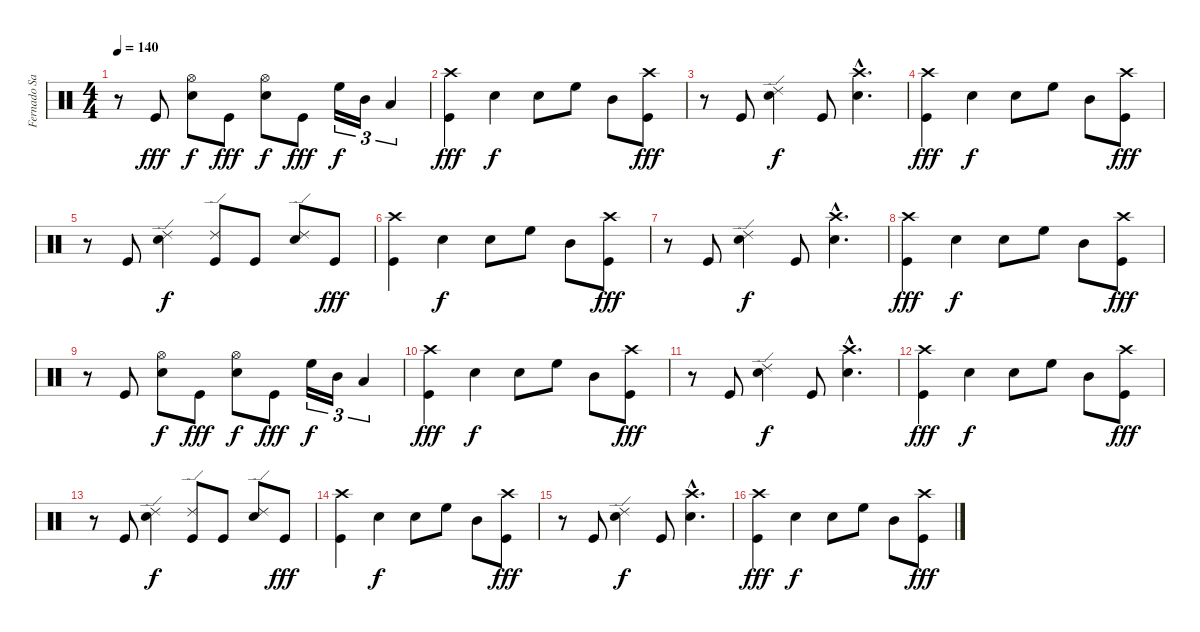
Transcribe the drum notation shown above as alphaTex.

\track ("Fernado Sanchez" "Fernado Sa") {instrument percussion}
\staff {score}
\articulation defaults
\ts (4 4)
\tempo 140
\clef neutral
\ks c
r.8{dy fff} "Kick (hit)".8 ("Hi-Hat (open)" "Electric Snare (hit)").8{dy f} "Kick (hit)".8{dy fff} ("Hi-Hat (open)" "Electric Snare (hit)").8{dy f} "Kick (hit)".8{dy fff} "High Floor Tom (hit)".16{tu (3 2) dy f} "Mid Tom (hit)".16{tu (3 2)} "Low Tom (hit)".4{tu (3 2)} |
("Crash high (hit)" "Kick (hit)").4{dy fff} "Electric Snare (hit)".4{dy f} "Electric Snare (hit)".8 "High Floor Tom (hit)".8 "Mid Tom (hit)".8 ("Crash high (hit)" "Kick (hit)").8{dy fff} |
r.8 "Kick (hit)".8 ("Ride (edge) 2" "Electric Snare (hit)").4{dy f} "Kick (hit)".8 ("Crash high (hit)"{hac} "Electric Snare (hit)"{hac}).4{d} |
("Crash high (hit)" "Kick (hit)").4{dy fff} "Electric Snare (hit)".4{dy f} "Electric Snare (hit)".8 "High Floor Tom (hit)".8 "Mid Tom (hit)".8 ("Crash high (hit)" "Kick (hit)").8{dy fff} |
r.8 "Kick (hit)".8 ("Ride (edge) 2" "Electric Snare (hit)").4{dy f} ("Ride (edge) 2" "Kick (hit)").8 "Kick (hit)".8 ("Ride (edge) 2" "Electric Snare (hit)").8 "Kick (hit)".8{dy fff} |
("Crash high (hit)" "Kick (hit)").4 "Electric Snare (hit)".4{dy f} "Electric Snare (hit)".8 "High Floor Tom (hit)".8 "Mid Tom (hit)".8 ("Crash high (hit)" "Kick (hit)").8{dy fff} |
r.8 "Kick (hit)".8 ("Ride (edge) 2" "Electric Snare (hit)").4{dy f} "Kick (hit)".8 ("Crash high (hit)"{hac} "Electric Snare (hit)"{hac}).4{d} |
("Crash high (hit)" "Kick (hit)").4{dy fff} "Electric Snare (hit)".4{dy f} "Electric Snare (hit)".8 "High Floor Tom (hit)".8 "Mid Tom (hit)".8 ("Crash high (hit)" "Kick (hit)").8{dy fff} |
r.8 "Kick (hit)".8 ("Hi-Hat (open)" "Electric Snare (hit)").8{dy f} "Kick (hit)".8{dy fff} ("Hi-Hat (open)" "Electric Snare (hit)").8{dy f} "Kick (hit)".8{dy fff} "High Floor Tom (hit)".16{tu (3 2) dy f} "Mid Tom (hit)".16{tu (3 2)} "Low Tom (hit)".4{tu (3 2)} |
("Crash high (hit)" "Kick (hit)").4{dy fff} "Electric Snare (hit)".4{dy f} "Electric Snare (hit)".8 "High Floor Tom (hit)".8 "Mid Tom (hit)".8 ("Crash high (hit)" "Kick (hit)").8{dy fff} |
r.8 "Kick (hit)".8 ("Ride (edge) 2" "Electric Snare (hit)").4{dy f} "Kick (hit)".8 ("Crash high (hit)"{hac} "Electric Snare (hit)"{hac}).4{d} |
("Crash high (hit)" "Kick (hit)").4{dy fff} "Electric Snare (hit)".4{dy f} "Electric Snare (hit)".8 "High Floor Tom (hit)".8 "Mid Tom (hit)".8 ("Crash high (hit)" "Kick (hit)").8{dy fff} |
r.8 "Kick (hit)".8 ("Ride (edge) 2" "Electric Snare (hit)").4{dy f} ("Ride (edge) 2" "Kick (hit)").8 "Kick (hit)".8 ("Ride (edge) 2" "Electric Snare (hit)").8 "Kick (hit)".8{dy fff} |
("Crash high (hit)" "Kick (hit)").4 "Electric Snare (hit)".4{dy f} "Electric Snare (hit)".8 "High Floor Tom (hit)".8 "Mid Tom (hit)".8 ("Crash high (hit)" "Kick (hit)").8{dy fff} |
r.8 "Kick (hit)".8 ("Ride (edge) 2" "Electric Snare (hit)").4{dy f} "Kick (hit)".8 ("Crash high (hit)"{hac} "Electric Snare (hit)"{hac}).4{d} |
("Crash high (hit)" "Kick (hit)").4{dy fff} "Electric Snare (hit)".4{dy f} "Electric Snare (hit)".8 "High Floor Tom (hit)".8 "Mid Tom (hit)".8 ("Crash high (hit)" "Kick (hit)").8{dy fff}
